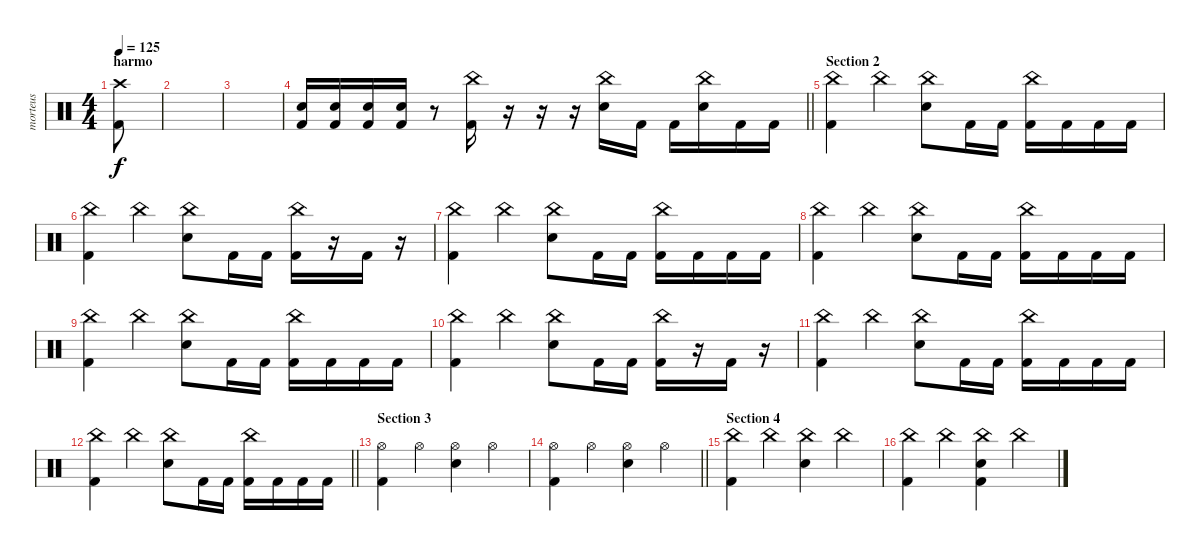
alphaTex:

\track ("morteus" "morteus") {instrument percussion}
\staff {score}
\articulation defaults
\ts (4 4)
\section ("" "harmo")
\tempo 125
\clef neutral
\ks c
("Crash high (hit)" "Kick (hit) 2").8{dy f} |
|
|
\barLineRight lightlight
("Kick (hit) 2" "Electric Snare (hit)").16 ("Kick (hit) 2" "Electric Snare (hit)").16 ("Kick (hit) 2" "Electric Snare (hit)").16 ("Kick (hit) 2" "Electric Snare (hit)").16 r.8 ("Kick (hit) 2" "China (hit)").16 r.16 r.16 r.16 ("Electric Snare (hit)" "China (hit)").16 "Kick (hit) 2".16 "Kick (hit) 2".16 ("Electric Snare (hit)" "China (hit)").16 "Kick (hit) 2".16 "Kick (hit) 2".16 |
\section ("" "Section 2")
("China (hit)" "Kick (hit) 2").4 "China (hit)".4 ("China (hit)" "Electric Snare (hit)").8 "Kick (hit) 2".16 "Kick (hit) 2".16 ("China (hit)" "Kick (hit) 2").16 "Kick (hit) 2".16 "Kick (hit) 2".16 "Kick (hit) 2".16 |
("China (hit)" "Kick (hit) 2").4 "China (hit)".4 ("China (hit)" "Electric Snare (hit)").8 "Kick (hit) 2".16 "Kick (hit) 2".16 ("China (hit)" "Kick (hit) 2").16 r.16 "Kick (hit) 2".16 r.16 |
("China (hit)" "Kick (hit) 2").4 "China (hit)".4 ("China (hit)" "Electric Snare (hit)").8 "Kick (hit) 2".16 "Kick (hit) 2".16 ("China (hit)" "Kick (hit) 2").16 "Kick (hit) 2".16 "Kick (hit) 2".16 "Kick (hit) 2".16 |
("China (hit)" "Kick (hit) 2").4 "China (hit)".4 ("China (hit)" "Electric Snare (hit)").8 "Kick (hit) 2".16 "Kick (hit) 2".16 ("China (hit)" "Kick (hit) 2").16 "Kick (hit) 2".16 "Kick (hit) 2".16 "Kick (hit) 2".16 |
("China (hit)" "Kick (hit) 2").4 "China (hit)".4 ("China (hit)" "Electric Snare (hit)").8 "Kick (hit) 2".16 "Kick (hit) 2".16 ("China (hit)" "Kick (hit) 2").16 "Kick (hit) 2".16 "Kick (hit) 2".16 "Kick (hit) 2".16 |
("China (hit)" "Kick (hit) 2").4 "China (hit)".4 ("China (hit)" "Electric Snare (hit)").8 "Kick (hit) 2".16 "Kick (hit) 2".16 ("China (hit)" "Kick (hit) 2").16 r.16 "Kick (hit) 2".16 r.16 |
("China (hit)" "Kick (hit) 2").4 "China (hit)".4 ("China (hit)" "Electric Snare (hit)").8 "Kick (hit) 2".16 "Kick (hit) 2".16 ("China (hit)" "Kick (hit) 2").16 "Kick (hit) 2".16 "Kick (hit) 2".16 "Kick (hit) 2".16 |
\barLineRight lightlight
("China (hit)" "Kick (hit) 2").4 "China (hit)".4 ("China (hit)" "Electric Snare (hit)").8 "Kick (hit) 2".16 "Kick (hit) 2".16 ("China (hit)" "Kick (hit) 2").16 "Kick (hit) 2".16 "Kick (hit) 2".16 "Kick (hit) 2".16 |
\section ("" "Section 3")
("Hi-Hat (open)" "Kick (hit) 2").4 "Hi-Hat (open)".4 ("Hi-Hat (open)" "Electric Snare (hit)").4 "Hi-Hat (open)".4 |
\barLineRight lightlight
("Hi-Hat (open)" "Kick (hit) 2").4 "Hi-Hat (open)".4 ("Hi-Hat (open)" "Electric Snare (hit)").4 "Hi-Hat (open)".4 |
\section ("" "Section 4")
("China (hit)" "Kick (hit) 2").4 "China (hit)".4 ("China (hit)" "Electric Snare (hit)").4 "China (hit)".4 |
("China (hit)" "Kick (hit) 2").4 "China (hit)".4 ("China (hit)" "Electric Snare (hit)" "Kick (hit) 2").4 "China (hit)".4
